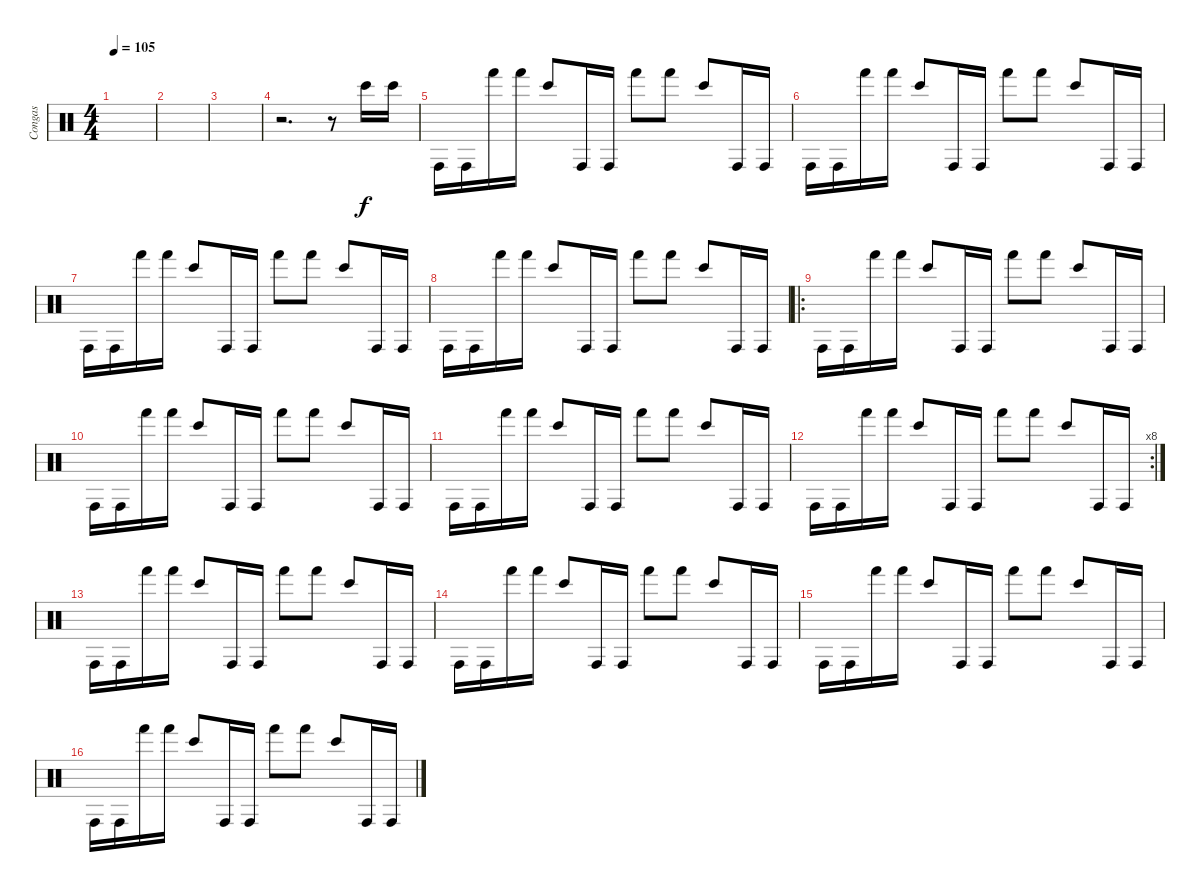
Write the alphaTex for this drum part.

\track ("Congas" "Congas") {instrument percussion}
\staff {score}
\articulation defaults
\ts (4 4)
\tempo 105
\clef neutral
\ks c
|
|
|
r.2{d} r.8 "Bongo High (hit)".16 "Bongo High (hit)".16 |
"Conga high (hit)".16 "Conga high (hit)".16 "Hand (hit)".16 "Hand (hit)".16 "Bongo High (hit)".8 "Conga high (hit)".16 "Conga high (hit)".16 "Hand (hit)".8 "Hand (hit)".8 "Bongo High (hit)".8 "Conga high (hit)".16 "Conga high (hit)".16 |
"Conga high (hit)".16 "Conga high (hit)".16 "Hand (hit)".16 "Hand (hit)".16 "Bongo High (hit)".8 "Conga high (hit)".16 "Conga high (hit)".16 "Hand (hit)".8 "Hand (hit)".8 "Bongo High (hit)".8 "Conga high (hit)".16 "Conga high (hit)".16 |
"Conga high (hit)".16 "Conga high (hit)".16 "Hand (hit)".16 "Hand (hit)".16 "Bongo High (hit)".8 "Conga high (hit)".16 "Conga high (hit)".16 "Hand (hit)".8 "Hand (hit)".8 "Bongo High (hit)".8 "Conga high (hit)".16 "Conga high (hit)".16 |
"Conga high (hit)".16 "Conga high (hit)".16 "Hand (hit)".16 "Hand (hit)".16 "Bongo High (hit)".8 "Conga high (hit)".16 "Conga high (hit)".16 "Hand (hit)".8 "Hand (hit)".8 "Bongo High (hit)".8 "Conga high (hit)".16 "Conga high (hit)".16 |
\ro "Conga high (hit)".16 "Conga high (hit)".16 "Hand (hit)".16 "Hand (hit)".16 "Bongo High (hit)".8 "Conga high (hit)".16 "Conga high (hit)".16 "Hand (hit)".8 "Hand (hit)".8 "Bongo High (hit)".8 "Conga high (hit)".16 "Conga high (hit)".16
|
"Conga high (hit)".16 "Conga high (hit)".16 "Hand (hit)".16 "Hand (hit)".16 "Bongo High (hit)".8 "Conga high (hit)".16 "Conga high (hit)".16 "Hand (hit)".8 "Hand (hit)".8 "Bongo High (hit)".8 "Conga high (hit)".16 "Conga high (hit)".16 |
"Conga high (hit)".16 "Conga high (hit)".16 "Hand (hit)".16 "Hand (hit)".16 "Bongo High (hit)".8 "Conga high (hit)".16 "Conga high (hit)".16 "Hand (hit)".8 "Hand (hit)".8 "Bongo High (hit)".8 "Conga high (hit)".16 "Conga high (hit)".16 |
\rc 8 "Conga high (hit)".16 "Conga high (hit)".16 "Hand (hit)".16 "Hand (hit)".16 "Bongo High (hit)".8 "Conga high (hit)".16 "Conga high (hit)".16 "Hand (hit)".8 "Hand (hit)".8 "Bongo High (hit)".8 "Conga high (hit)".16 "Conga high (hit)".16
|
"Conga high (hit)".16 "Conga high (hit)".16 "Hand (hit)".16 "Hand (hit)".16 "Bongo High (hit)".8 "Conga high (hit)".16 "Conga high (hit)".16 "Hand (hit)".8 "Hand (hit)".8 "Bongo High (hit)".8 "Conga high (hit)".16 "Conga high (hit)".16 |
"Conga high (hit)".16 "Conga high (hit)".16 "Hand (hit)".16 "Hand (hit)".16 "Bongo High (hit)".8 "Conga high (hit)".16 "Conga high (hit)".16 "Hand (hit)".8 "Hand (hit)".8 "Bongo High (hit)".8 "Conga high (hit)".16 "Conga high (hit)".16 |
"Conga high (hit)".16 "Conga high (hit)".16 "Hand (hit)".16 "Hand (hit)".16 "Bongo High (hit)".8 "Conga high (hit)".16 "Conga high (hit)".16 "Hand (hit)".8 "Hand (hit)".8 "Bongo High (hit)".8 "Conga high (hit)".16 "Conga high (hit)".16 |
"Conga high (hit)".16 "Conga high (hit)".16 "Hand (hit)".16 "Hand (hit)".16 "Bongo High (hit)".8 "Conga high (hit)".16 "Conga high (hit)".16 "Hand (hit)".8 "Hand (hit)".8 "Bongo High (hit)".8 "Conga high (hit)".16 "Conga high (hit)".16
